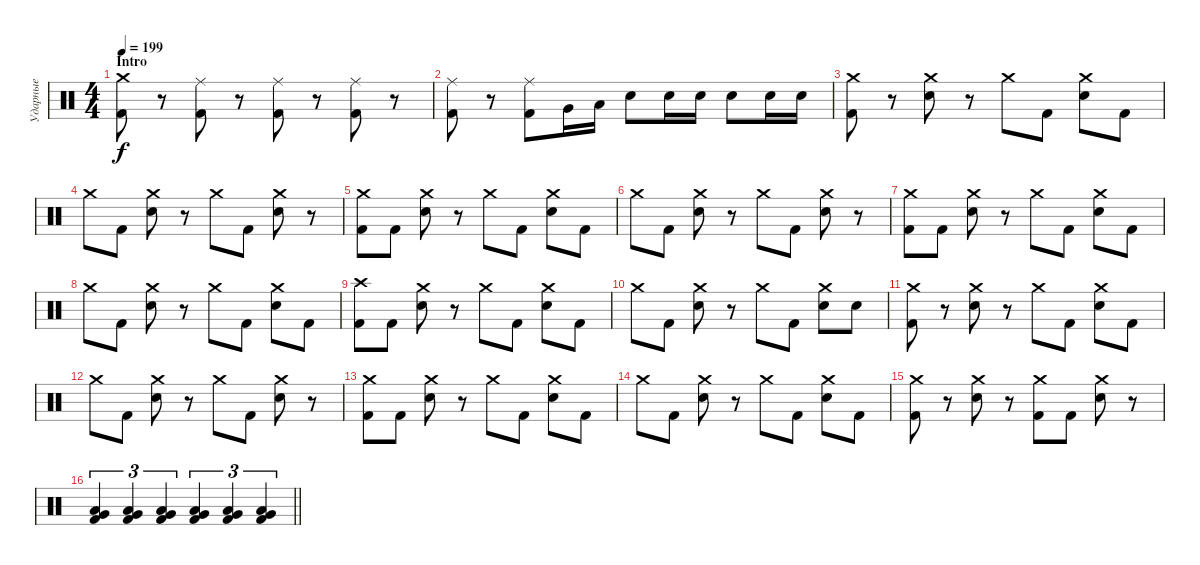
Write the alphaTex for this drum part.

\track ("Ударные" "Ударные") {instrument percussion}
\staff {score}
\articulation defaults
\ts (4 4)
\section ("" "Intro")
\tempo 199
\clef neutral
\ks c
("Crash medium (hit)" "Kick (hit) 2").8{dy f} r.8 ("Ride (middle)" "Kick (hit) 2").8 r.8 ("Ride (middle)" "Kick (hit) 2").8 r.8 ("Ride (middle)" "Kick (hit) 2").8 r.8 |
("Ride (middle)" "Kick (hit) 2").8 r.8 ("Ride (middle)" "Kick (hit) 2").8 "Very Low Tom (hit)".16 "Low Tom (hit)".16 "Electric Snare (hit)".8 "Electric Snare (hit)".16 "Electric Snare (hit)".16 "Electric Snare (hit)".8 "Electric Snare (hit)".16 "Electric Snare (hit)".16 |
("Crash medium (hit)" "Kick (hit) 2").8 r.8 ("Crash medium (hit)" "Electric Snare (hit)").8 r.8 "Crash medium (hit)".8 "Kick (hit) 2".8 ("Crash medium (hit)" "Electric Snare (hit)").8 "Kick (hit) 2".8 |
"Crash medium (hit)".8 "Kick (hit) 2".8 ("Crash medium (hit)" "Electric Snare (hit)").8 r.8 "Crash medium (hit)".8 "Kick (hit) 2".8 ("Crash medium (hit)" "Electric Snare (hit)").8 r.8 |
("Crash medium (hit)" "Kick (hit) 2").8 "Kick (hit) 2".8 ("Crash medium (hit)" "Electric Snare (hit)").8 r.8 "Crash medium (hit)".8 "Kick (hit) 2".8 ("Crash medium (hit)" "Electric Snare (hit)").8 "Kick (hit) 2".8 |
"Crash medium (hit)".8 "Kick (hit) 2".8 ("Crash medium (hit)" "Electric Snare (hit)").8 r.8 "Crash medium (hit)".8 "Kick (hit) 2".8 ("Crash medium (hit)" "Electric Snare (hit)").8 r.8 |
("Crash medium (hit)" "Kick (hit) 2").8 "Kick (hit) 2".8 ("Crash medium (hit)" "Electric Snare (hit)").8 r.8 "Crash medium (hit)".8 "Kick (hit) 2".8 ("Crash medium (hit)" "Electric Snare (hit)").8 "Kick (hit) 2".8 |
"Crash medium (hit)".8 "Kick (hit) 2".8 ("Crash medium (hit)" "Electric Snare (hit)").8 r.8 "Crash medium (hit)".8 "Kick (hit) 2".8 ("Crash medium (hit)" "Electric Snare (hit)").8 "Kick (hit) 2".8 |
("Crash high (hit)" "Kick (hit) 2").8 "Kick (hit) 2".8 ("Crash medium (hit)" "Electric Snare (hit)").8 r.8 "Crash medium (hit)".8 "Kick (hit) 2".8 ("Crash medium (hit)" "Electric Snare (hit)").8 "Kick (hit) 2".8 |
"Crash medium (hit)".8 "Kick (hit) 2".8 ("Crash medium (hit)" "Electric Snare (hit)").8 r.8 "Crash medium (hit)".8 "Kick (hit) 2".8 ("Crash medium (hit)" "Electric Snare (hit)").8 "Electric Snare (hit)".8 |
("Crash medium (hit)" "Kick (hit) 2").8 r.8 ("Crash medium (hit)" "Electric Snare (hit)").8 r.8 "Crash medium (hit)".8 "Kick (hit) 2".8 ("Crash medium (hit)" "Electric Snare (hit)").8 "Kick (hit) 2".8 |
"Crash medium (hit)".8 "Kick (hit) 2".8 ("Crash medium (hit)" "Electric Snare (hit)").8 r.8 "Crash medium (hit)".8 "Kick (hit) 2".8 ("Crash medium (hit)" "Electric Snare (hit)").8 r.8 |
("Crash medium (hit)" "Kick (hit) 2").8 "Kick (hit) 2".8 ("Crash medium (hit)" "Electric Snare (hit)").8 r.8 "Crash medium (hit)".8 "Kick (hit) 2".8 ("Crash medium (hit)" "Electric Snare (hit)").8 "Kick (hit) 2".8 |
"Crash medium (hit)".8 "Kick (hit) 2".8 ("Crash medium (hit)" "Electric Snare (hit)").8 r.8 "Crash medium (hit)".8 "Kick (hit) 2".8 ("Crash medium (hit)" "Electric Snare (hit)").8 "Kick (hit) 2".8 |
("Crash medium (hit)" "Kick (hit) 2").8 r.8 ("Crash medium (hit)" "Electric Snare (hit)").8 r.8 ("Crash medium (hit)" "Kick (hit) 2").8 "Kick (hit) 2".8 ("Crash medium (hit)" "Electric Snare (hit)").8 r.8 |
\barLineRight lightlight
("Very Low Tom (hit)" "Low Tom (hit)" "Kick (hit) 2").4{tu (3 2)} ("Very Low Tom (hit)" "Low Tom (hit)" "Kick (hit) 2").4{tu (3 2)} ("Very Low Tom (hit)" "Low Tom (hit)" "Kick (hit) 2").4{tu (3 2)} ("Very Low Tom (hit)" "Low Tom (hit)" "Kick (hit) 2").4{tu (3 2)} ("Very Low Tom (hit)" "Low Tom (hit)" "Kick (hit) 2").4{tu (3 2)} ("Very Low Tom (hit)" "Low Tom (hit)" "Kick (hit) 2").4{tu (3 2)}
